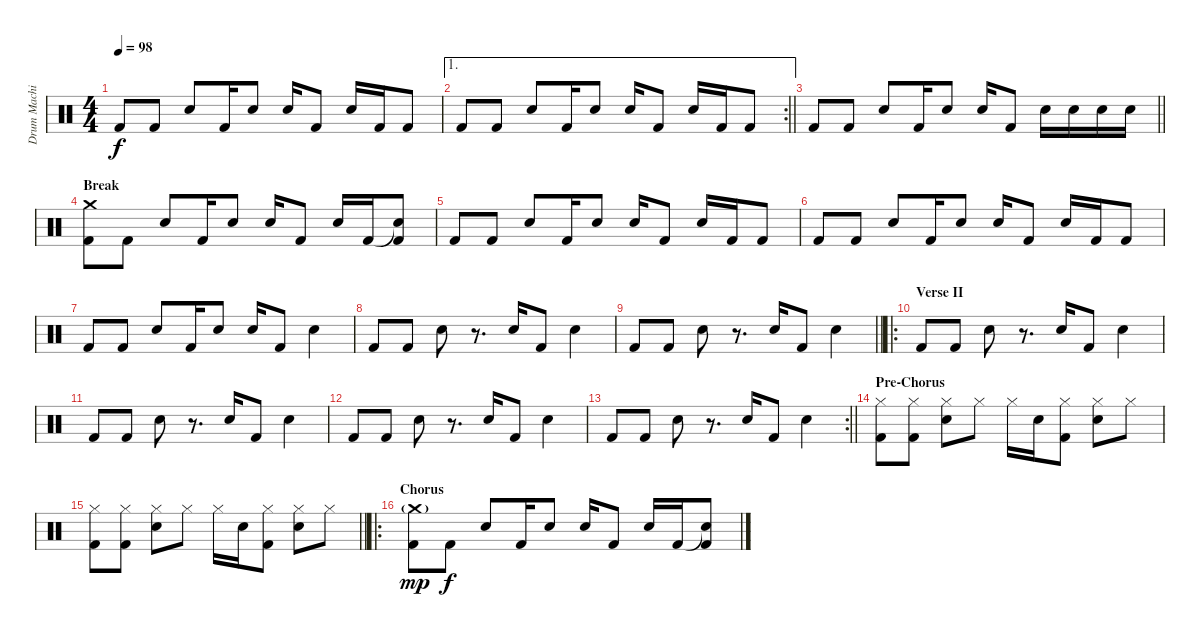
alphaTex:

\track ("Drum Machine" "Drum Machi") {instrument percussion}
\staff {score}
\articulation defaults
\ts (4 4)
\tempo 98
\clef neutral
\ks c "Kick (hit) 2".8{dy f} "Kick (hit) 2".8 "Electric Snare (hit)".8 "Kick (hit) 2".16 "Electric Snare (hit)".8 "Electric Snare (hit)".16 "Kick (hit) 2".8 "Electric Snare (hit)".16 "Kick (hit) 2".16 "Kick (hit) 2".8
|
\ae 1
\rc 2
\barLineRight lightlight "Kick (hit) 2".8 "Kick (hit) 2".8 "Electric Snare (hit)".8 "Kick (hit) 2".16 "Electric Snare (hit)".8 "Electric Snare (hit)".16 "Kick (hit) 2".8 "Electric Snare (hit)".16 "Kick (hit) 2".16 "Kick (hit) 2".8
|
\barLineRight lightlight "Kick (hit) 2".8 "Kick (hit) 2".8 "Electric Snare (hit)".8 "Kick (hit) 2".16 "Electric Snare (hit)".8 "Electric Snare (hit)".16 "Kick (hit) 2".8 "Electric Snare (hit)".16 "Electric Snare (hit)".16 "Electric Snare (hit)".16 "Electric Snare (hit)".16
|
\section ("" "Break")
("Crash medium (hit)" "Kick (hit) 2").8 "Kick (hit) 2".8 "Electric Snare (hit)".8 "Kick (hit) 2".16 "Electric Snare (hit)".8 "Electric Snare (hit)".16 "Kick (hit) 2".8 "Electric Snare (hit)".16 "Kick (hit) 2".16 ("Snare (hit)"{t} "Kick (hit) 2").8 |
"Kick (hit) 2".8 "Kick (hit) 2".8 "Electric Snare (hit)".8 "Kick (hit) 2".16 "Electric Snare (hit)".8 "Electric Snare (hit)".16 "Kick (hit) 2".8 "Electric Snare (hit)".16 "Kick (hit) 2".16 "Kick (hit) 2".8 |
"Kick (hit) 2".8 "Kick (hit) 2".8 "Electric Snare (hit)".8 "Kick (hit) 2".16 "Electric Snare (hit)".8 "Electric Snare (hit)".16 "Kick (hit) 2".8 "Electric Snare (hit)".16 "Kick (hit) 2".16 "Kick (hit) 2".8 |
"Kick (hit) 2".8 "Kick (hit) 2".8 "Electric Snare (hit)".8 "Kick (hit) 2".16 "Electric Snare (hit)".8 "Electric Snare (hit)".16 "Kick (hit) 2".8 "Electric Snare (hit)".4 |
"Kick (hit) 2".8{volume 5} "Kick (hit) 2".8 "Electric Snare (hit)".8 r.8{d} "Electric Snare (hit)".16 "Kick (hit) 2".8 "Electric Snare (hit)".4 |
\barLineRight lightlight "Kick (hit) 2".8 "Kick (hit) 2".8 "Electric Snare (hit)".8
r.8{d} "Electric Snare (hit)".16 "Kick (hit) 2".8 "Electric Snare (hit)".4 |
\ro
\section ("" "Verse II")
"Kick (hit) 2".8 "Kick (hit) 2".8 "Electric Snare (hit)".8 r.8{d} "Electric Snare (hit)".16 "Kick (hit) 2".8 "Electric Snare (hit)".4 |
"Kick (hit) 2".8 "Kick (hit) 2".8 "Electric Snare (hit)".8 r.8{d} "Electric Snare (hit)".16 "Kick (hit) 2".8 "Electric Snare (hit)".4 |
"Kick (hit) 2".8 "Kick (hit) 2".8 "Electric Snare (hit)".8 r.8{d} "Electric Snare (hit)".16 "Kick (hit) 2".8 "Electric Snare (hit)".4 |
\rc 2
\barLineRight lightlight "Kick (hit) 2".8 "Kick (hit) 2".8 "Electric Snare (hit)".8
r.8{d} "Electric Snare (hit)".16 "Kick (hit) 2".8 "Electric Snare (hit)".4 |
\section ("" "Pre-Chorus")
("Hi-Hat (closed)" "Kick (hit) 2").8 ("Hi-Hat (closed)" "Kick (hit) 2").8 ("Hi-Hat (closed)" "Electric Snare (hit)").8 "Hi-Hat (closed)".8 "Hi-Hat (closed)".16 "Electric Snare (hit)".16 ("Hi-Hat (closed)" "Kick (hit) 2").8 ("Hi-Hat (closed)" "Electric Snare (hit)").8 "Hi-Hat (closed)".8 |
\barLineRight lightlight
("Hi-Hat (closed)" "Kick (hit) 2").8 ("Hi-Hat (closed)" "Kick (hit) 2").8 ("Hi-Hat (closed)" "Electric Snare (hit)").8 "Hi-Hat (closed)".8 "Hi-Hat (closed)".16 "Electric Snare (hit)".16 ("Hi-Hat (closed)" "Kick (hit) 2").8 ("Hi-Hat (closed)" "Electric Snare (hit)").8 "Hi-Hat (closed)".8 |
\ro
\section ("" "Chorus")
("Crash medium (hit)"{g} "Kick (hit) 2").8{dy mp volume 9} "Kick (hit) 2".8{dy f} "Electric Snare (hit)".8 "Kick (hit) 2".16 "Electric Snare (hit)".8 "Electric Snare (hit)".16 "Kick (hit) 2".8 "Electric Snare (hit)".16 "Kick (hit) 2".16 ("Snare (hit)"{t} "Kick (hit) 2").8
